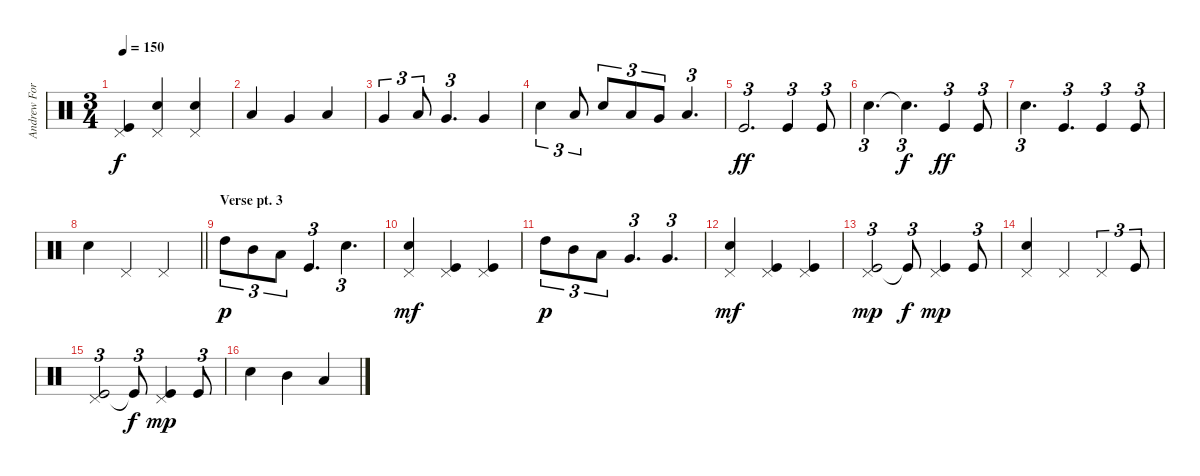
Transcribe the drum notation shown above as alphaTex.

\track ("Andrew Forsman" "Andrew For") {instrument percussion}
\staff {score}
\articulation defaults
\ts (3 4)
\tempo 150
\clef neutral
\ks c
("Pedal Hi-Hat (hit)" "Kick (hit)").4{dy f} ("Pedal Hi-Hat (hit)" "Electric Snare (hit)").4 ("Pedal Hi-Hat (hit)" "Electric Snare (hit)").4 |
"Low Tom (hit)".4 "Very Low Tom (hit)".4 "Low Floor Tom (hit)".4 |
"Very Low Tom (hit)".4{tu (3 2)} "Low Floor Tom (hit)".8{tu (3 2)} "Very Low Tom (hit)".4{d tu (3 2)} "Very Low Tom (hit)".4 |
"Electric Snare (hit)".4{tu (3 2)} "Low Tom (hit)".8{tu (3 2)} "Electric Snare (hit)".8{tu (3 2)} "Low Tom (hit)".8{tu (3 2)} "Very Low Tom (hit)".8{tu (3 2)} "Low Floor Tom (hit)".4{d tu (3 2)} |
"Kick (hit)".2{d tu (3 2) dy ff} "Kick (hit)".4{tu (3 2)} "Kick (hit)".8{tu (3 2)} |
"Electric Snare (hit)".4{d tu (3 2)} "Snare (hit)"{t}.4{d tu (3 2) dy f} "Kick (hit)".4{tu (3 2) dy ff} "Kick (hit)".8{tu (3 2)} |
"Electric Snare (hit)".4{d tu (3 2)} "Kick (hit)".4{d tu (3 2)} "Kick (hit)".4{tu (3 2)} "Kick (hit)".8{tu (3 2)} |
\barLineRight lightlight "Electric Snare (hit)".4 "Pedal Hi-Hat (hit)".4 "Pedal Hi-Hat (hit)".4
|
\section ("" "Verse pt. 3")
"High Tom (hit)".8{tu (3 2) dy p} "Mid Tom (hit)".8{tu (3 2)} "Low Tom (hit)".8{tu (3 2)} "Kick (hit)".4{d tu (3 2)} "Electric Snare (hit)".4{d tu (3 2)} |
("Pedal Hi-Hat (hit)" "Electric Snare (hit)").4{dy mf} ("Pedal Hi-Hat (hit)" "Kick (hit)").4 ("Pedal Hi-Hat (hit)" "Kick (hit)").4 |
"High Tom (hit)".8{tu (3 2) dy p} "Mid Tom (hit)".8{tu (3 2)} "Low Tom (hit)".8{tu (3 2)} "Very Low Tom (hit)".4{d tu (3 2)} "Very Low Tom (hit)".4{d tu (3 2)} |
("Pedal Hi-Hat (hit)" "Electric Snare (hit)").4{dy mf} ("Pedal Hi-Hat (hit)" "Kick (hit)").4 ("Pedal Hi-Hat (hit)" "Kick (hit)").4 |
("Pedal Hi-Hat (hit)" "Kick (hit)").2{tu (3 2) dy mp} "Kick (hit)"{t}.8{tu (3 2) dy f} ("Pedal Hi-Hat (hit)" "Kick (hit)").4{dy mp} "Kick (hit)".8{tu (3 2)} |
("Pedal Hi-Hat (hit)" "Electric Snare (hit)").4 "Pedal Hi-Hat (hit)".4 "Pedal Hi-Hat (hit)".4{tu (3 2)} "Kick (hit)".8{tu (3 2)} |
("Pedal Hi-Hat (hit)" "Kick (hit)").2{tu (3 2)} "Kick (hit)"{t}.8{tu (3 2) dy f} ("Pedal Hi-Hat (hit)" "Kick (hit)").4{dy mp} "Kick (hit)".8{tu (3 2)} |
"Electric Snare (hit)".4 "Mid Tom (hit)".4 "Low Tom (hit)".4
